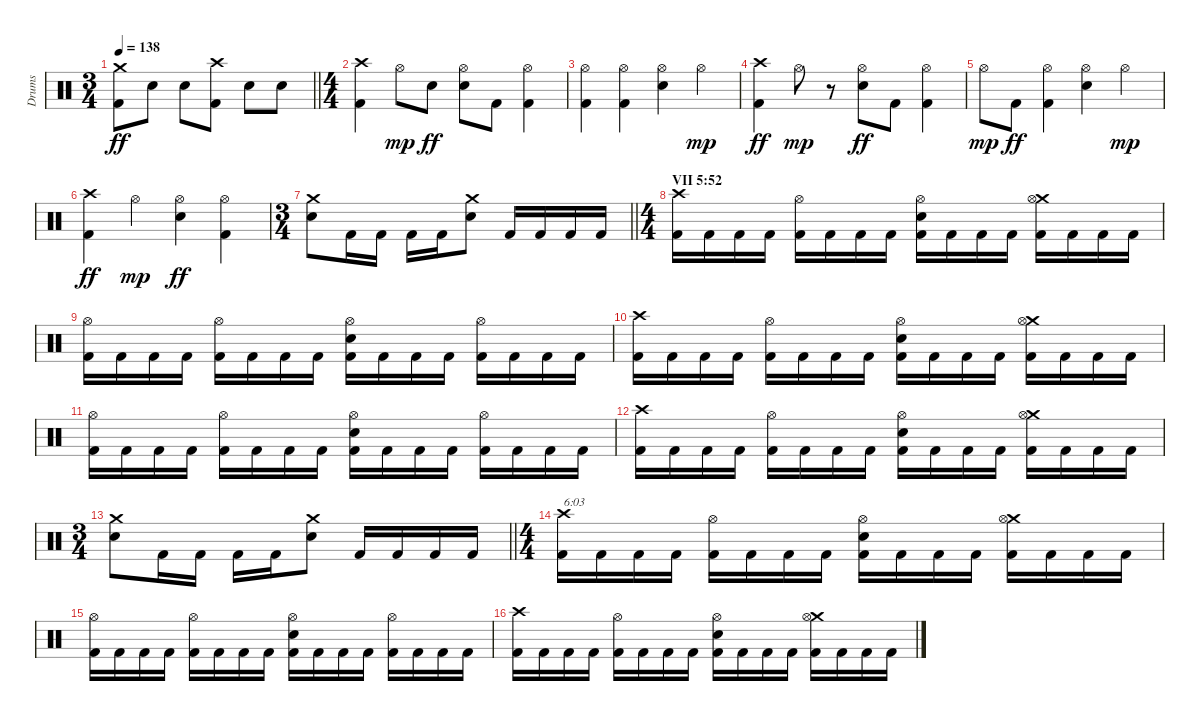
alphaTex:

\track ("Drums" "Drums") {instrument percussion}
\staff {score}
\articulation defaults
\ts (3 4)
\tempo 138
\clef neutral
\barLineRight lightlight
\ks c
("Crash medium (hit)" "Kick (hit) 2").8{dy ff} "Electric Snare (hit)".8 "Electric Snare (hit)".8 ("Crash high (hit)" "Kick (hit) 2").8 "Electric Snare (hit)".8 "Electric Snare (hit)".8 |
\ts (4 4)
("Crash high (hit)" "Kick (hit) 2").4 "Hi-Hat (open)".8{dy mp} "Electric Snare (hit)".8{dy ff} ("Hi-Hat (open)" "Electric Snare (hit)").8 "Kick (hit) 2".8 ("Hi-Hat (open)" "Kick (hit) 2").4 |
("Hi-Hat (open)" "Kick (hit) 2").4 ("Hi-Hat (open)" "Kick (hit) 2").4 ("Hi-Hat (open)" "Electric Snare (hit)").4 "Hi-Hat (open)".4{dy mp} |
("Crash high (hit)" "Kick (hit) 2").4{dy ff} "Hi-Hat (open)".8{dy mp} r.8 ("Hi-Hat (open)" "Electric Snare (hit)").8{dy ff} "Kick (hit) 2".8 ("Hi-Hat (open)" "Kick (hit) 2").4 |
"Hi-Hat (open)".8{dy mp} "Kick (hit) 2".8{dy ff} ("Hi-Hat (open)" "Kick (hit) 2").4 ("Hi-Hat (open)" "Electric Snare (hit)").4 "Hi-Hat (open)".4{dy mp} |
("Crash high (hit)" "Kick (hit) 2").4{dy ff} "Hi-Hat (open)".4{dy mp} ("Hi-Hat (open)" "Electric Snare (hit)").4{dy ff} ("Hi-Hat (open)" "Kick (hit) 2").4 |
\ts (3 4)
\barLineRight lightlight
("Crash medium (hit)" "Electric Snare (hit)").8 "Kick (hit) 2".16 "Kick (hit) 2".16 "Kick (hit) 2".16 "Kick (hit) 2".16 ("Crash medium (hit)" "Electric Snare (hit)").8 "Kick (hit) 2".16 "Kick (hit) 2".16 "Kick (hit) 2".16 "Kick (hit) 2".16 |
\ts (4 4)
\section ("" "VII 5:52")
("Crash high (hit)" "Kick (hit) 2").16 "Kick (hit) 2".16 "Kick (hit) 2".16 "Kick (hit) 2".16 ("Hi-Hat (open)" "Kick (hit) 2").16 "Kick (hit) 2".16 "Kick (hit) 2".16 "Kick (hit) 2".16 ("Hi-Hat (open)" "Electric Snare (hit)" "Kick (hit) 2").16 "Kick (hit) 2".16 "Kick (hit) 2".16 "Kick (hit) 2".16 ("Crash medium (hit)" "Hi-Hat (open)" "Kick (hit) 2").16 "Kick (hit) 2".16 "Kick (hit) 2".16 "Kick (hit) 2".16 |
("Hi-Hat (open)" "Kick (hit) 2").16 "Kick (hit) 2".16 "Kick (hit) 2".16 "Kick (hit) 2".16 ("Hi-Hat (open)" "Kick (hit) 2").16 "Kick (hit) 2".16 "Kick (hit) 2".16 "Kick (hit) 2".16 ("Hi-Hat (open)" "Electric Snare (hit)" "Kick (hit) 2").16 "Kick (hit) 2".16 "Kick (hit) 2".16 "Kick (hit) 2".16 ("Hi-Hat (open)" "Kick (hit) 2").16 "Kick (hit) 2".16 "Kick (hit) 2".16 "Kick (hit) 2".16 |
("Crash high (hit)" "Kick (hit) 2").16 "Kick (hit) 2".16 "Kick (hit) 2".16 "Kick (hit) 2".16 ("Hi-Hat (open)" "Kick (hit) 2").16 "Kick (hit) 2".16 "Kick (hit) 2".16 "Kick (hit) 2".16 ("Hi-Hat (open)" "Electric Snare (hit)" "Kick (hit) 2").16 "Kick (hit) 2".16 "Kick (hit) 2".16 "Kick (hit) 2".16 ("Crash medium (hit)" "Hi-Hat (open)" "Kick (hit) 2").16 "Kick (hit) 2".16 "Kick (hit) 2".16 "Kick (hit) 2".16 |
("Hi-Hat (open)" "Kick (hit) 2").16 "Kick (hit) 2".16 "Kick (hit) 2".16 "Kick (hit) 2".16 ("Hi-Hat (open)" "Kick (hit) 2").16 "Kick (hit) 2".16 "Kick (hit) 2".16 "Kick (hit) 2".16 ("Hi-Hat (open)" "Electric Snare (hit)" "Kick (hit) 2").16 "Kick (hit) 2".16 "Kick (hit) 2".16 "Kick (hit) 2".16 ("Hi-Hat (open)" "Kick (hit) 2").16 "Kick (hit) 2".16 "Kick (hit) 2".16 "Kick (hit) 2".16 |
("Crash high (hit)" "Kick (hit) 2").16 "Kick (hit) 2".16 "Kick (hit) 2".16 "Kick (hit) 2".16 ("Hi-Hat (open)" "Kick (hit) 2").16 "Kick (hit) 2".16 "Kick (hit) 2".16 "Kick (hit) 2".16 ("Hi-Hat (open)" "Electric Snare (hit)" "Kick (hit) 2").16 "Kick (hit) 2".16 "Kick (hit) 2".16 "Kick (hit) 2".16 ("Crash medium (hit)" "Hi-Hat (open)" "Kick (hit) 2").16 "Kick (hit) 2".16 "Kick (hit) 2".16 "Kick (hit) 2".16 |
\ts (3 4)
\barLineRight lightlight
("Crash medium (hit)" "Electric Snare (hit)").8 "Kick (hit) 2".16 "Kick (hit) 2".16 "Kick (hit) 2".16 "Kick (hit) 2".16 ("Crash medium (hit)" "Electric Snare (hit)").8 "Kick (hit) 2".16 "Kick (hit) 2".16 "Kick (hit) 2".16 "Kick (hit) 2".16 |
\ts (4 4)
("Crash high (hit)" "Kick (hit) 2").16{txt "6:03"} "Kick (hit) 2".16 "Kick (hit) 2".16 "Kick (hit) 2".16 ("Hi-Hat (open)" "Kick (hit) 2").16 "Kick (hit) 2".16 "Kick (hit) 2".16 "Kick (hit) 2".16 ("Hi-Hat (open)" "Electric Snare (hit)" "Kick (hit) 2").16 "Kick (hit) 2".16 "Kick (hit) 2".16 "Kick (hit) 2".16 ("Crash medium (hit)" "Hi-Hat (open)" "Kick (hit) 2").16 "Kick (hit) 2".16 "Kick (hit) 2".16 "Kick (hit) 2".16 |
("Hi-Hat (open)" "Kick (hit) 2").16 "Kick (hit) 2".16 "Kick (hit) 2".16 "Kick (hit) 2".16 ("Hi-Hat (open)" "Kick (hit) 2").16 "Kick (hit) 2".16 "Kick (hit) 2".16 "Kick (hit) 2".16 ("Hi-Hat (open)" "Electric Snare (hit)" "Kick (hit) 2").16 "Kick (hit) 2".16 "Kick (hit) 2".16 "Kick (hit) 2".16 ("Hi-Hat (open)" "Kick (hit) 2").16 "Kick (hit) 2".16 "Kick (hit) 2".16 "Kick (hit) 2".16 |
("Crash high (hit)" "Kick (hit) 2").16 "Kick (hit) 2".16 "Kick (hit) 2".16 "Kick (hit) 2".16 ("Hi-Hat (open)" "Kick (hit) 2").16 "Kick (hit) 2".16 "Kick (hit) 2".16 "Kick (hit) 2".16 ("Hi-Hat (open)" "Electric Snare (hit)" "Kick (hit) 2").16 "Kick (hit) 2".16 "Kick (hit) 2".16 "Kick (hit) 2".16 ("Crash medium (hit)" "Hi-Hat (open)" "Kick (hit) 2").16 "Kick (hit) 2".16 "Kick (hit) 2".16 "Kick (hit) 2".16
